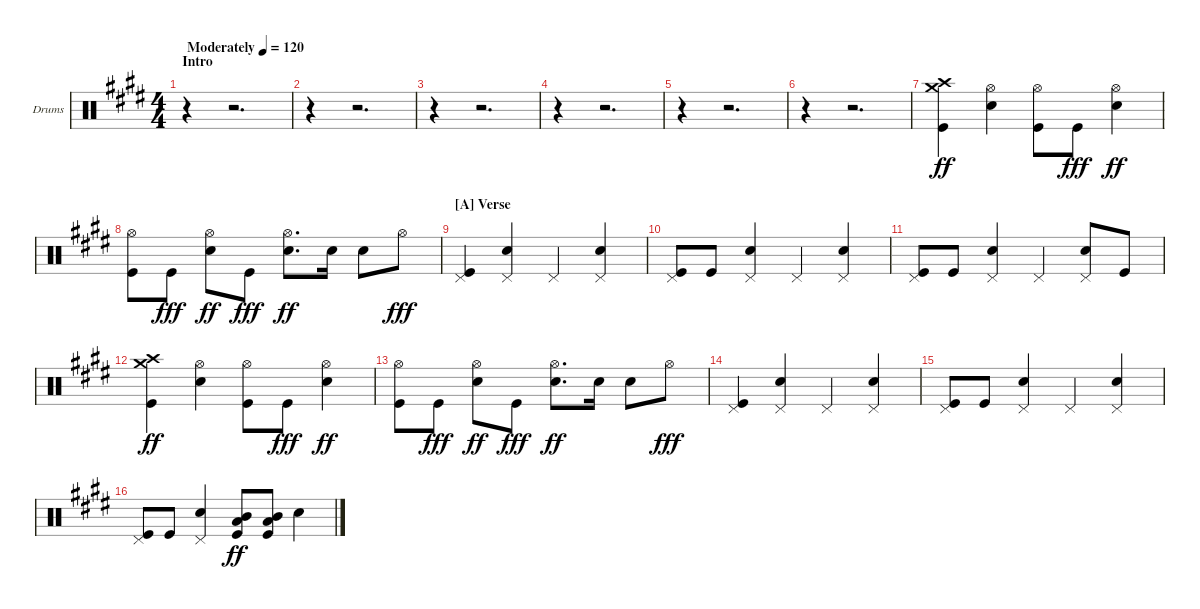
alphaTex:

\defaultSystemsLayout 4
\bracketExtendMode groupsimilarinstruments
\firstSystemTrackNameOrientation horizontal
\otherSystemsTrackNameOrientation horizontal
\track ("Drums" "Drums") {instrument percussion}
\staff {score}
\articulation defaults
\ts (4 4)
\section ("" "Intro")
\tempo (120 "Moderately")
\clef neutral
\scale
1.09584
\ks e
r.4{dy ff} r.2{d} |
\scale
0.904161 r.4 r.2{d} |
\scale
1.06557 r.4 r.2{d} |
\scale
0.934426 r.4 r.2{d} |
\scale
1.06557 r.4 r.2{d} |
\scale
0.934426 r.4 r.2{d} |
\scale
1.06557 ("Crash high (hit)" "Crash medium (hit)" "Kick (hit)").4 ("Hi-Hat (open)" "Snare (hit) 2").4 ("Hi-Hat (open)" "Kick (hit)").8 "Kick (hit)".8{dy fff} ("Hi-Hat (open)" "Snare (hit) 2").4{dy ff} |
\scale
0.934426 ("Hi-Hat (open)" "Kick (hit)").8 "Kick (hit)".8{dy fff} ("Hi-Hat (open)" "Snare (hit) 2").8{dy ff} "Kick (hit)".8{dy fff} ("Hi-Hat (open)" "Snare (hit) 2").8{d dy ff} "Snare (hit) 2".16 "Snare (hit) 2".8 "Hi-Hat (open)".8{dy fff} |
\section ("A" "Verse")
\scale
1.06557 ("Pedal Hi-Hat (hit)" "Kick (hit)").4 ("Pedal Hi-Hat (hit)" "Snare (hit) 2").4 "Pedal Hi-Hat (hit)".4 ("Pedal Hi-Hat (hit)" "Snare (hit) 2").4 |
\scale
0.934426 ("Pedal Hi-Hat (hit)" "Kick (hit)").8 "Kick (hit)".8 ("Pedal Hi-Hat (hit)" "Snare (hit) 2").4 "Pedal Hi-Hat (hit)".4 ("Pedal Hi-Hat (hit)" "Snare (hit) 2").4 |
\scale
1.06557 ("Pedal Hi-Hat (hit)" "Kick (hit)").8 "Kick (hit)".8 ("Pedal Hi-Hat (hit)" "Snare (hit) 2").4 "Pedal Hi-Hat (hit)".4 ("Pedal Hi-Hat (hit)" "Snare (hit) 2").8 "Kick (hit)".8 |
\scale
0.934426 ("Crash high (hit)" "Crash medium (hit)" "Kick (hit)").4{dy ff} ("Hi-Hat (open)" "Snare (hit) 2").4 ("Hi-Hat (open)" "Kick (hit)").8 "Kick (hit)".8{dy fff} ("Hi-Hat (open)" "Snare (hit) 2").4{dy ff} |
\scale
1.06557 ("Hi-Hat (open)" "Kick (hit)").8 "Kick (hit)".8{dy fff} ("Hi-Hat (open)" "Snare (hit) 2").8{dy ff} "Kick (hit)".8{dy fff} ("Hi-Hat (open)" "Snare (hit) 2").8{d dy ff} "Snare (hit) 2".16 "Snare (hit) 2".8 "Hi-Hat (open)".8{dy fff} |
\scale
0.934426 ("Pedal Hi-Hat (hit)" "Kick (hit)").4 ("Pedal Hi-Hat (hit)" "Snare (hit) 2").4 "Pedal Hi-Hat (hit)".4 ("Pedal Hi-Hat (hit)" "Snare (hit) 2").4 |
\scale
1.06557 ("Pedal Hi-Hat (hit)" "Kick (hit)").8 "Kick (hit)".8 ("Pedal Hi-Hat (hit)" "Snare (hit) 2").4 "Pedal Hi-Hat (hit)".4 ("Pedal Hi-Hat (hit)" "Snare (hit) 2").4 |
\scale
0.934426 ("Pedal Hi-Hat (hit)" "Kick (hit)").8 "Kick (hit)".8 ("Pedal Hi-Hat (hit)" "Snare (hit) 2").4 ("Mid Tom (hit)" "Low Tom (hit)" "Kick (hit)").8{dy ff} ("Mid Tom (hit)" "Low Tom (hit)" "Kick (hit)").8 "Snare (hit) 2".4
